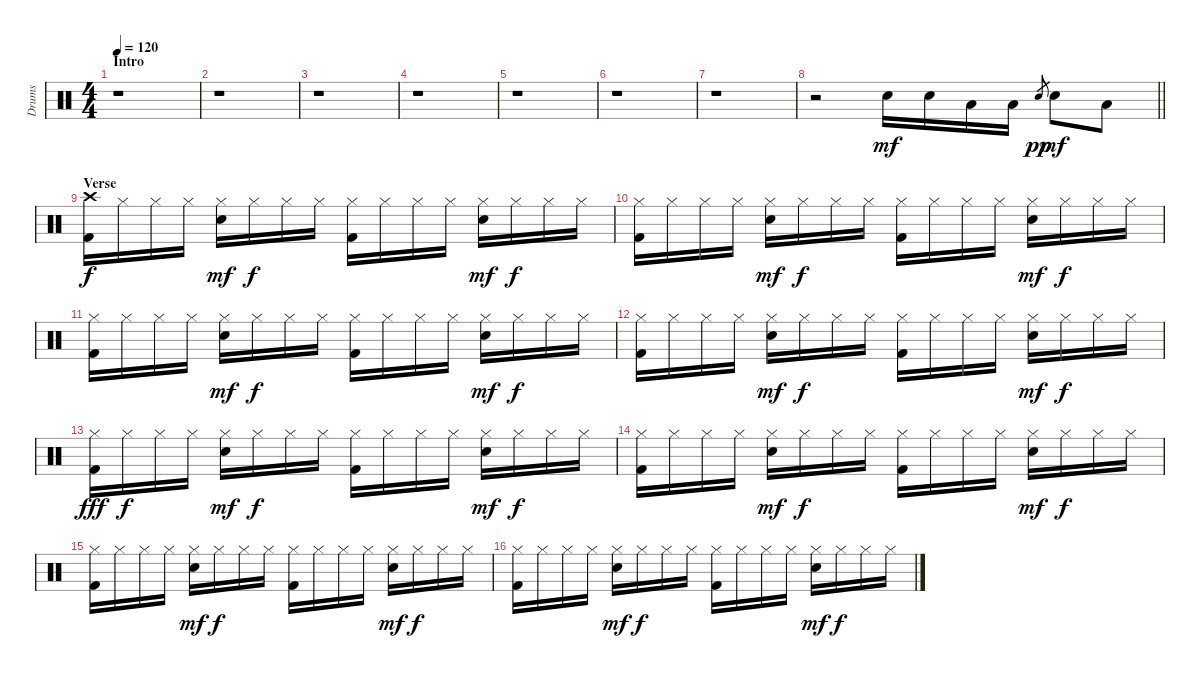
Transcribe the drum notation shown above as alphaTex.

\track ("Drums" "Drums") {instrument percussion}
\staff {score}
\articulation defaults
\ts (4 4)
\section ("" "Intro")
\tempo 120
\clef neutral
\ks c
r.1{dy mf} |
r.1 |
r.1 |
r.1 |
r.1 |
r.1 |
r.1 |
\barLineRight lightlight
r.2 "Electric Snare (hit)".16 "Electric Snare (hit)".16 "Low Tom (hit)".16 "Low Tom (hit)".16 "Electric Snare (hit)".8{gr dy pp} "Electric Snare (hit)".8{dy mf} "Low Tom (hit)".8 |
\section ("" "Verse")
("Crash high (hit)" "Kick (hit) 2").16{dy f} "Hi-Hat (closed)".16 "Hi-Hat (closed)".16 "Hi-Hat (closed)".16 ("Hi-Hat (closed)" "Electric Snare (hit)").16{dy mf} "Hi-Hat (closed)".16{dy f} "Hi-Hat (closed)".16 "Hi-Hat (closed)".16 ("Hi-Hat (closed)" "Kick (hit) 2").16 "Hi-Hat (closed)".16 "Hi-Hat (closed)".16 "Hi-Hat (closed)".16 ("Hi-Hat (closed)" "Electric Snare (hit)").16{dy mf} "Hi-Hat (closed)".16{dy f} "Hi-Hat (closed)".16 "Hi-Hat (closed)".16 |
("Hi-Hat (closed)" "Kick (hit) 2").16 "Hi-Hat (closed)".16 "Hi-Hat (closed)".16 "Hi-Hat (closed)".16 ("Hi-Hat (closed)" "Electric Snare (hit)").16{dy mf} "Hi-Hat (closed)".16{dy f} "Hi-Hat (closed)".16 "Hi-Hat (closed)".16 ("Hi-Hat (closed)" "Kick (hit) 2").16 "Hi-Hat (closed)".16 "Hi-Hat (closed)".16 "Hi-Hat (closed)".16 ("Hi-Hat (closed)" "Electric Snare (hit)").16{dy mf} "Hi-Hat (closed)".16{dy f} "Hi-Hat (closed)".16 "Hi-Hat (closed)".16 |
("Hi-Hat (closed)" "Kick (hit) 2").16 "Hi-Hat (closed)".16 "Hi-Hat (closed)".16 "Hi-Hat (closed)".16 ("Hi-Hat (closed)" "Electric Snare (hit)").16{dy mf} "Hi-Hat (closed)".16{dy f} "Hi-Hat (closed)".16 "Hi-Hat (closed)".16 ("Hi-Hat (closed)" "Kick (hit) 2").16 "Hi-Hat (closed)".16 "Hi-Hat (closed)".16 "Hi-Hat (closed)".16 ("Hi-Hat (closed)" "Electric Snare (hit)").16{dy mf} "Hi-Hat (closed)".16{dy f} "Hi-Hat (closed)".16 "Hi-Hat (closed)".16 |
("Hi-Hat (closed)" "Kick (hit) 2").16 "Hi-Hat (closed)".16 "Hi-Hat (closed)".16 "Hi-Hat (closed)".16 ("Hi-Hat (closed)" "Electric Snare (hit)").16{dy mf} "Hi-Hat (closed)".16{dy f} "Hi-Hat (closed)".16 "Hi-Hat (closed)".16 ("Hi-Hat (closed)" "Kick (hit) 2").16 "Hi-Hat (closed)".16 "Hi-Hat (closed)".16 "Hi-Hat (closed)".16 ("Hi-Hat (closed)" "Electric Snare (hit)").16{dy mf} "Hi-Hat (closed)".16{dy f} "Hi-Hat (closed)".16 "Hi-Hat (closed)".16 |
("Hi-Hat (closed)" "Kick (hit) 2").16{dy fff} "Hi-Hat (closed)".16{dy f} "Hi-Hat (closed)".16 "Hi-Hat (closed)".16 ("Hi-Hat (closed)" "Electric Snare (hit)").16{dy mf} "Hi-Hat (closed)".16{dy f} "Hi-Hat (closed)".16 "Hi-Hat (closed)".16 ("Hi-Hat (closed)" "Kick (hit) 2").16 "Hi-Hat (closed)".16 "Hi-Hat (closed)".16 "Hi-Hat (closed)".16 ("Hi-Hat (closed)" "Electric Snare (hit)").16{dy mf} "Hi-Hat (closed)".16{dy f} "Hi-Hat (closed)".16 "Hi-Hat (closed)".16 |
("Hi-Hat (closed)" "Kick (hit) 2").16 "Hi-Hat (closed)".16 "Hi-Hat (closed)".16 "Hi-Hat (closed)".16 ("Hi-Hat (closed)" "Electric Snare (hit)").16{dy mf} "Hi-Hat (closed)".16{dy f} "Hi-Hat (closed)".16 "Hi-Hat (closed)".16 ("Hi-Hat (closed)" "Kick (hit) 2").16 "Hi-Hat (closed)".16 "Hi-Hat (closed)".16 "Hi-Hat (closed)".16 ("Hi-Hat (closed)" "Electric Snare (hit)").16{dy mf} "Hi-Hat (closed)".16{dy f} "Hi-Hat (closed)".16 "Hi-Hat (closed)".16 |
("Hi-Hat (closed)" "Kick (hit) 2").16 "Hi-Hat (closed)".16 "Hi-Hat (closed)".16 "Hi-Hat (closed)".16 ("Hi-Hat (closed)" "Electric Snare (hit)").16{dy mf} "Hi-Hat (closed)".16{dy f} "Hi-Hat (closed)".16 "Hi-Hat (closed)".16 ("Hi-Hat (closed)" "Kick (hit) 2").16 "Hi-Hat (closed)".16 "Hi-Hat (closed)".16 "Hi-Hat (closed)".16 ("Hi-Hat (closed)" "Electric Snare (hit)").16{dy mf} "Hi-Hat (closed)".16{dy f} "Hi-Hat (closed)".16 "Hi-Hat (closed)".16 |
("Hi-Hat (closed)" "Kick (hit) 2").16 "Hi-Hat (closed)".16 "Hi-Hat (closed)".16 "Hi-Hat (closed)".16 ("Hi-Hat (closed)" "Electric Snare (hit)").16{dy mf} "Hi-Hat (closed)".16{dy f} "Hi-Hat (closed)".16 "Hi-Hat (closed)".16 ("Hi-Hat (closed)" "Kick (hit) 2").16 "Hi-Hat (closed)".16 "Hi-Hat (closed)".16 "Hi-Hat (closed)".16 ("Hi-Hat (closed)" "Electric Snare (hit)").16{dy mf} "Hi-Hat (closed)".16{dy f} "Hi-Hat (closed)".16 "Hi-Hat (closed)".16
